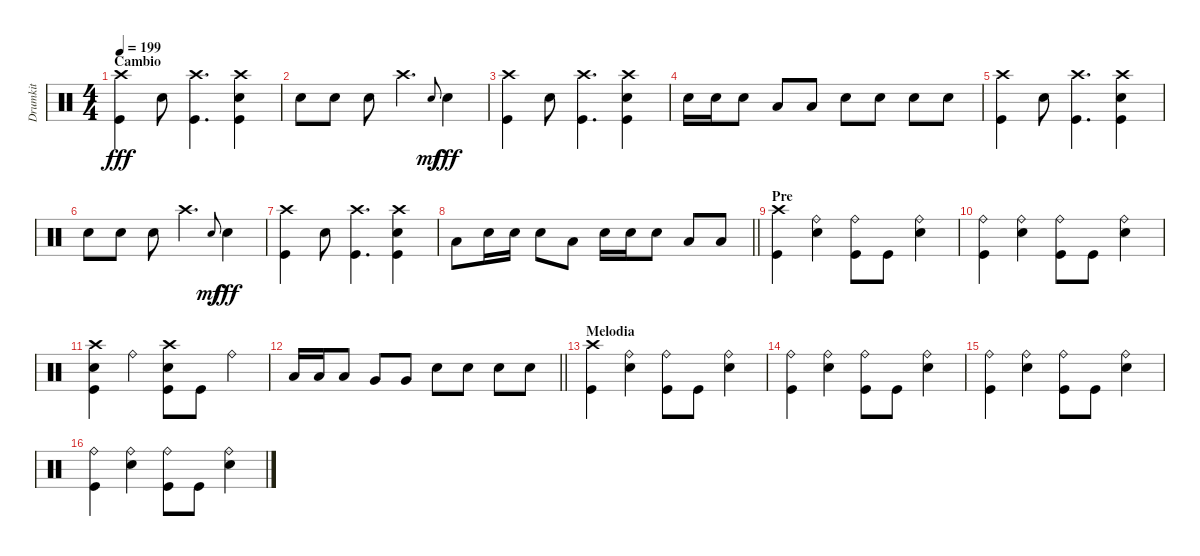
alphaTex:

\track ("Drumkit" "Drumkit") {instrument percussion}
\staff
\articulation defaults
\ts (4 4)
\section ("" "Cambio")
\tempo 199
\clef neutral
\ks c
("Crash high (hit)" "Kick (hit)").4{dy fff} "Snare (hit) 2".8 ("Crash high (hit)" "Kick (hit)").4{d} ("Crash high (hit)" "Kick (hit)" "Snare (hit) 2").4 |
"Snare (hit) 2".8 "Snare (hit) 2".8 "Snare (hit) 2".8 "Crash high (hit)".4{d} "Snare (hit)".8{gr onbeat dy mf} "Snare (hit) 2".4{dy fff} |
("Crash high (hit)" "Kick (hit)").4 "Snare (hit) 2".8 ("Crash high (hit)" "Kick (hit)").4{d} ("Crash high (hit)" "Kick (hit)" "Snare (hit) 2").4 |
"Snare (hit) 2".16 "Snare (hit) 2".16 "Snare (hit) 2".8 "Low Tom (hit)".8 "Low Tom (hit)".8 "Snare (hit) 2".8 "Snare (hit) 2".8 "Snare (hit) 2".8 "Snare (hit) 2".8 |
("Crash high (hit)" "Kick (hit)").4 "Snare (hit) 2".8 ("Crash high (hit)" "Kick (hit)").4{d} ("Crash high (hit)" "Kick (hit)" "Snare (hit) 2").4 |
"Snare (hit) 2".8 "Snare (hit) 2".8 "Snare (hit) 2".8 "Crash high (hit)".4{d} "Snare (hit)".8{gr onbeat dy mf} "Snare (hit) 2".4{dy fff} |
("Crash high (hit)" "Kick (hit)").4 "Snare (hit) 2".8 ("Crash high (hit)" "Kick (hit)").4{d} ("Crash high (hit)" "Kick (hit)" "Snare (hit) 2").4 |
\barLineRight lightlight "Low Tom (hit)".8 "Snare (hit) 2".16 "Snare (hit) 2".16 "Snare (hit) 2".8 "Low Tom (hit)".8 "Snare (hit) 2".16 "Snare (hit) 2".16 "Snare (hit) 2".8 "Low Tom (hit)".8 "Low Tom (hit)".8
|
\section ("" "Pre")
("Kick (hit)" "Crash high (hit)").4 ("Snare (hit) 2" "Ride (bell)").4 ("Kick (hit)" "Ride (bell)").8 "Kick (hit)".8 ("Snare (hit) 2" "Ride (bell)").4 |
("Kick (hit)" "Ride (bell)").4 ("Snare (hit) 2" "Ride (bell)").4 ("Kick (hit)" "Ride (bell)").8 "Kick (hit)".8 ("Snare (hit) 2" "Ride (bell)").4 |
("Kick (hit)" "Snare (hit) 2" "Crash high (hit)").4 "Ride (bell)".4 ("Kick (hit)" "Snare (hit) 2" "Crash high (hit)").8 "Kick (hit)".8 "Ride (bell)".4 |
\barLineRight lightlight "Low Tom (hit)".16 "Low Tom (hit)".16 "Low Tom (hit)".8 "Very Low Tom (hit)".8 "Very Low Tom (hit)".8 "Snare (hit) 2".8 "Snare (hit) 2".8 "Snare (hit) 2".8 "Snare (hit) 2".8
|
\section ("" "Melodia")
("Crash high (hit)" "Kick (hit)").4 ("Snare (hit) 2" "Ride (bell)").4 ("Kick (hit)" "Ride (bell)").8 "Kick (hit)".8 ("Snare (hit) 2" "Ride (bell)").4 |
("Kick (hit)" "Ride (bell)").4 ("Snare (hit) 2" "Ride (bell)").4 ("Kick (hit)" "Ride (bell)").8 "Kick (hit)".8 ("Snare (hit) 2" "Ride (bell)").4 |
("Kick (hit)" "Ride (bell)").4 ("Snare (hit) 2" "Ride (bell)").4 ("Kick (hit)" "Ride (bell)").8 "Kick (hit)".8 ("Snare (hit) 2" "Ride (bell)").4 |
("Kick (hit)" "Ride (bell)").4 ("Snare (hit) 2" "Ride (bell)").4 ("Kick (hit)" "Ride (bell)").8 "Kick (hit)".8 ("Snare (hit) 2" "Ride (bell)").4
